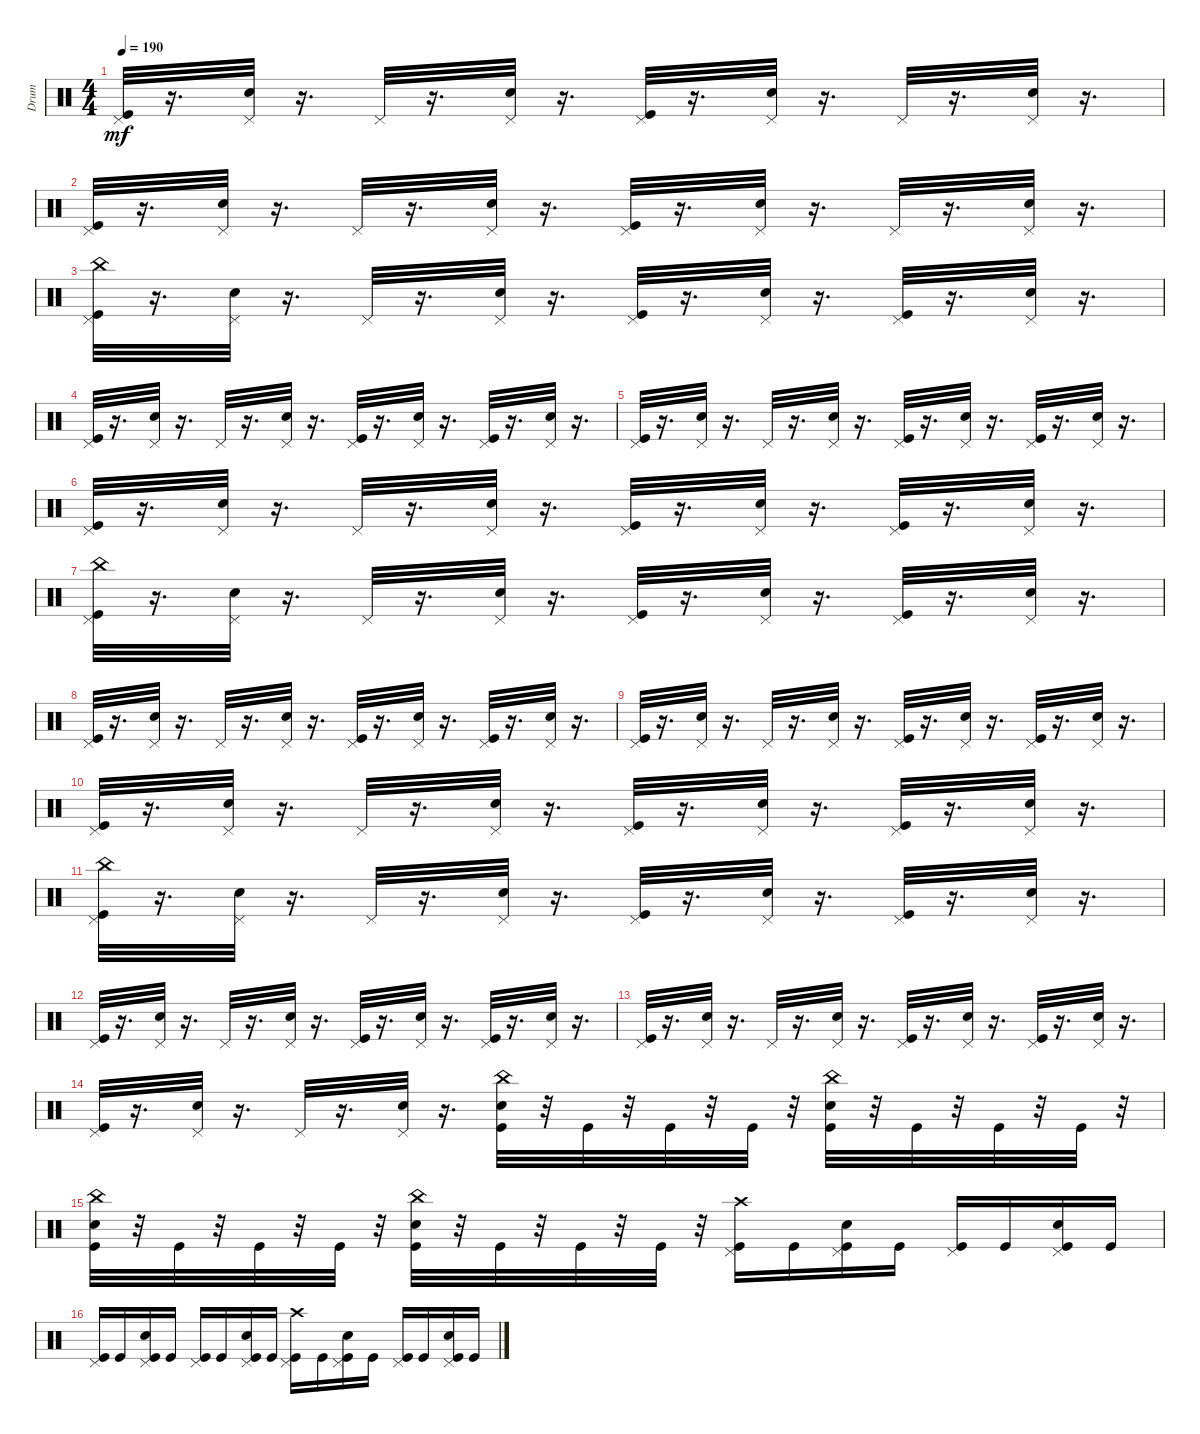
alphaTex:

\track ("Drum" "Drum") {instrument percussion}
\staff {score}
\articulation defaults
\ts (4 4)
\tempo 190
\clef neutral
\ks c
("Pedal Hi-Hat (hit)" "Kick (hit)").32{dy mf} r.16{d} ("Pedal Hi-Hat (hit)" "Snare (hit) 2").32 r.16{d} "Pedal Hi-Hat (hit)".32 r.16{d} ("Pedal Hi-Hat (hit)" "Snare (hit) 2").32 r.16{d} ("Pedal Hi-Hat (hit)" "Kick (hit)").32 r.16{d} ("Pedal Hi-Hat (hit)" "Snare (hit) 2").32 r.16{d} "Pedal Hi-Hat (hit)".32 r.16{d} ("Pedal Hi-Hat (hit)" "Snare (hit) 2").32 r.16{d} |
("Pedal Hi-Hat (hit)" "Kick (hit)").32 r.16{d} ("Pedal Hi-Hat (hit)" "Snare (hit) 2").32 r.16{d} "Pedal Hi-Hat (hit)".32 r.16{d} ("Pedal Hi-Hat (hit)" "Snare (hit) 2").32 r.16{d} ("Pedal Hi-Hat (hit)" "Kick (hit)").32 r.16{d} ("Pedal Hi-Hat (hit)" "Snare (hit) 2").32 r.16{d} "Pedal Hi-Hat (hit)".32 r.16{d} ("Pedal Hi-Hat (hit)" "Snare (hit) 2").32 r.16{d} |
("Pedal Hi-Hat (hit)" "Kick (hit)" "China (hit)").32 r.16{d} ("Pedal Hi-Hat (hit)" "Snare (hit) 2").32 r.16{d} "Pedal Hi-Hat (hit)".32 r.16{d} ("Pedal Hi-Hat (hit)" "Snare (hit) 2").32 r.16{d} ("Pedal Hi-Hat (hit)" "Kick (hit)").32 r.16{d} ("Pedal Hi-Hat (hit)" "Snare (hit) 2").32 r.16{d} ("Kick (hit)" "Pedal Hi-Hat (hit)").32 r.16{d} ("Pedal Hi-Hat (hit)" "Snare (hit) 2").32 r.16{d} |
("Pedal Hi-Hat (hit)" "Kick (hit)").32 r.16{d} ("Pedal Hi-Hat (hit)" "Snare (hit) 2").32 r.16{d} "Pedal Hi-Hat (hit)".32 r.16{d} ("Pedal Hi-Hat (hit)" "Snare (hit) 2").32 r.16{d} ("Pedal Hi-Hat (hit)" "Kick (hit)").32 r.16{d} ("Pedal Hi-Hat (hit)" "Snare (hit) 2").32 r.16{d} ("Kick (hit)" "Pedal Hi-Hat (hit)").32 r.16{d} ("Pedal Hi-Hat (hit)" "Snare (hit) 2").32 r.16{d} |
("Pedal Hi-Hat (hit)" "Kick (hit)").32 r.16{d} ("Pedal Hi-Hat (hit)" "Snare (hit) 2").32 r.16{d} "Pedal Hi-Hat (hit)".32 r.16{d} ("Pedal Hi-Hat (hit)" "Snare (hit) 2").32 r.16{d} ("Pedal Hi-Hat (hit)" "Kick (hit)").32 r.16{d} ("Pedal Hi-Hat (hit)" "Snare (hit) 2").32 r.16{d} ("Kick (hit)" "Pedal Hi-Hat (hit)").32 r.16{d} ("Pedal Hi-Hat (hit)" "Snare (hit) 2").32 r.16{d} |
("Pedal Hi-Hat (hit)" "Kick (hit)").32 r.16{d} ("Pedal Hi-Hat (hit)" "Snare (hit) 2").32 r.16{d} "Pedal Hi-Hat (hit)".32 r.16{d} ("Pedal Hi-Hat (hit)" "Snare (hit) 2").32 r.16{d} ("Pedal Hi-Hat (hit)" "Kick (hit)").32 r.16{d} ("Pedal Hi-Hat (hit)" "Snare (hit) 2").32 r.16{d} ("Kick (hit)" "Pedal Hi-Hat (hit)").32 r.16{d} ("Pedal Hi-Hat (hit)" "Snare (hit) 2").32 r.16{d} |
("Pedal Hi-Hat (hit)" "Kick (hit)" "China (hit)").32 r.16{d} ("Pedal Hi-Hat (hit)" "Snare (hit) 2").32 r.16{d} "Pedal Hi-Hat (hit)".32 r.16{d} ("Pedal Hi-Hat (hit)" "Snare (hit) 2").32 r.16{d} ("Pedal Hi-Hat (hit)" "Kick (hit)").32 r.16{d} ("Pedal Hi-Hat (hit)" "Snare (hit) 2").32 r.16{d} ("Kick (hit)" "Pedal Hi-Hat (hit)").32 r.16{d} ("Pedal Hi-Hat (hit)" "Snare (hit) 2").32 r.16{d} |
("Pedal Hi-Hat (hit)" "Kick (hit)").32 r.16{d} ("Pedal Hi-Hat (hit)" "Snare (hit) 2").32 r.16{d} "Pedal Hi-Hat (hit)".32 r.16{d} ("Pedal Hi-Hat (hit)" "Snare (hit) 2").32 r.16{d} ("Pedal Hi-Hat (hit)" "Kick (hit)").32 r.16{d} ("Pedal Hi-Hat (hit)" "Snare (hit) 2").32 r.16{d} ("Kick (hit)" "Pedal Hi-Hat (hit)").32 r.16{d} ("Pedal Hi-Hat (hit)" "Snare (hit) 2").32 r.16{d} |
("Pedal Hi-Hat (hit)" "Kick (hit)").32 r.16{d} ("Pedal Hi-Hat (hit)" "Snare (hit) 2").32 r.16{d} "Pedal Hi-Hat (hit)".32 r.16{d} ("Pedal Hi-Hat (hit)" "Snare (hit) 2").32 r.16{d} ("Pedal Hi-Hat (hit)" "Kick (hit)").32 r.16{d} ("Pedal Hi-Hat (hit)" "Snare (hit) 2").32 r.16{d} ("Kick (hit)" "Pedal Hi-Hat (hit)").32 r.16{d} ("Pedal Hi-Hat (hit)" "Snare (hit) 2").32 r.16{d} |
("Pedal Hi-Hat (hit)" "Kick (hit)").32 r.16{d} ("Pedal Hi-Hat (hit)" "Snare (hit) 2").32 r.16{d} "Pedal Hi-Hat (hit)".32 r.16{d} ("Pedal Hi-Hat (hit)" "Snare (hit) 2").32 r.16{d} ("Pedal Hi-Hat (hit)" "Kick (hit)").32 r.16{d} ("Pedal Hi-Hat (hit)" "Snare (hit) 2").32 r.16{d} ("Kick (hit)" "Pedal Hi-Hat (hit)").32 r.16{d} ("Pedal Hi-Hat (hit)" "Snare (hit) 2").32 r.16{d} |
("Pedal Hi-Hat (hit)" "Kick (hit)" "China (hit)").32 r.16{d} ("Pedal Hi-Hat (hit)" "Snare (hit) 2").32 r.16{d} "Pedal Hi-Hat (hit)".32 r.16{d} ("Pedal Hi-Hat (hit)" "Snare (hit) 2").32 r.16{d} ("Pedal Hi-Hat (hit)" "Kick (hit)").32 r.16{d} ("Pedal Hi-Hat (hit)" "Snare (hit) 2").32 r.16{d} ("Kick (hit)" "Pedal Hi-Hat (hit)").32 r.16{d} ("Pedal Hi-Hat (hit)" "Snare (hit) 2").32 r.16{d} |
("Pedal Hi-Hat (hit)" "Kick (hit)").32 r.16{d} ("Pedal Hi-Hat (hit)" "Snare (hit) 2").32 r.16{d} "Pedal Hi-Hat (hit)".32 r.16{d} ("Pedal Hi-Hat (hit)" "Snare (hit) 2").32 r.16{d} ("Pedal Hi-Hat (hit)" "Kick (hit)").32 r.16{d} ("Pedal Hi-Hat (hit)" "Snare (hit) 2").32 r.16{d} ("Kick (hit)" "Pedal Hi-Hat (hit)").32 r.16{d} ("Pedal Hi-Hat (hit)" "Snare (hit) 2").32 r.16{d} |
("Pedal Hi-Hat (hit)" "Kick (hit)").32 r.16{d} ("Pedal Hi-Hat (hit)" "Snare (hit) 2").32 r.16{d} "Pedal Hi-Hat (hit)".32 r.16{d} ("Pedal Hi-Hat (hit)" "Snare (hit) 2").32 r.16{d} ("Pedal Hi-Hat (hit)" "Kick (hit)").32 r.16{d} ("Pedal Hi-Hat (hit)" "Snare (hit) 2").32 r.16{d} ("Kick (hit)" "Pedal Hi-Hat (hit)").32 r.16{d} ("Pedal Hi-Hat (hit)" "Snare (hit) 2").32 r.16{d} |
("Pedal Hi-Hat (hit)" "Kick (hit)").32 r.16{d} ("Pedal Hi-Hat (hit)" "Snare (hit) 2").32 r.16{d} "Pedal Hi-Hat (hit)".32 r.16{d} ("Pedal Hi-Hat (hit)" "Snare (hit) 2").32 r.16{d} ("China (hit)" "Snare (hit) 2" "Kick (hit)").32 r.32 "Kick (hit)".32 r.32 "Kick (hit)".32 r.32 "Kick (hit)".32 r.32 ("Snare (hit) 2" "China (hit)" "Kick (hit)").32 r.32 "Kick (hit)".32 r.32 "Kick (hit)".32 r.32 "Kick (hit)".32 r.32 |
("Snare (hit) 2" "China (hit)" "Kick (hit)").32 r.32 "Kick (hit)".32 r.32 "Kick (hit)".32 r.32 "Kick (hit)".32 r.32 ("Snare (hit) 2" "China (hit)" "Kick (hit)").32 r.32 "Kick (hit)".32 r.32 "Kick (hit)".32 r.32 "Kick (hit)".32 r.32 ("Crash high (hit)" "Kick (hit)" "Pedal Hi-Hat (hit)").16 "Kick (hit)".16 ("Pedal Hi-Hat (hit)" "Snare (hit) 2" "Kick (hit)").16 "Kick (hit)".16 ("Pedal Hi-Hat (hit)" "Kick (hit)").16 "Kick (hit)".16 ("Pedal Hi-Hat (hit)" "Snare (hit) 2" "Kick (hit)").16 "Kick (hit)".16 |
("Pedal Hi-Hat (hit)" "Kick (hit)").16 "Kick (hit)".16 ("Pedal Hi-Hat (hit)" "Snare (hit) 2" "Kick (hit)").16 "Kick (hit)".16 ("Pedal Hi-Hat (hit)" "Kick (hit)").16 "Kick (hit)".16 ("Pedal Hi-Hat (hit)" "Snare (hit) 2" "Kick (hit)").16 "Kick (hit)".16 ("Crash high (hit)" "Pedal Hi-Hat (hit)" "Kick (hit)").16 "Kick (hit)".16 ("Pedal Hi-Hat (hit)" "Snare (hit) 2" "Kick (hit)").16 "Kick (hit)".16 ("Pedal Hi-Hat (hit)" "Kick (hit)").16 "Kick (hit)".16 ("Pedal Hi-Hat (hit)" "Snare (hit) 2" "Kick (hit)").16 "Kick (hit)".16
